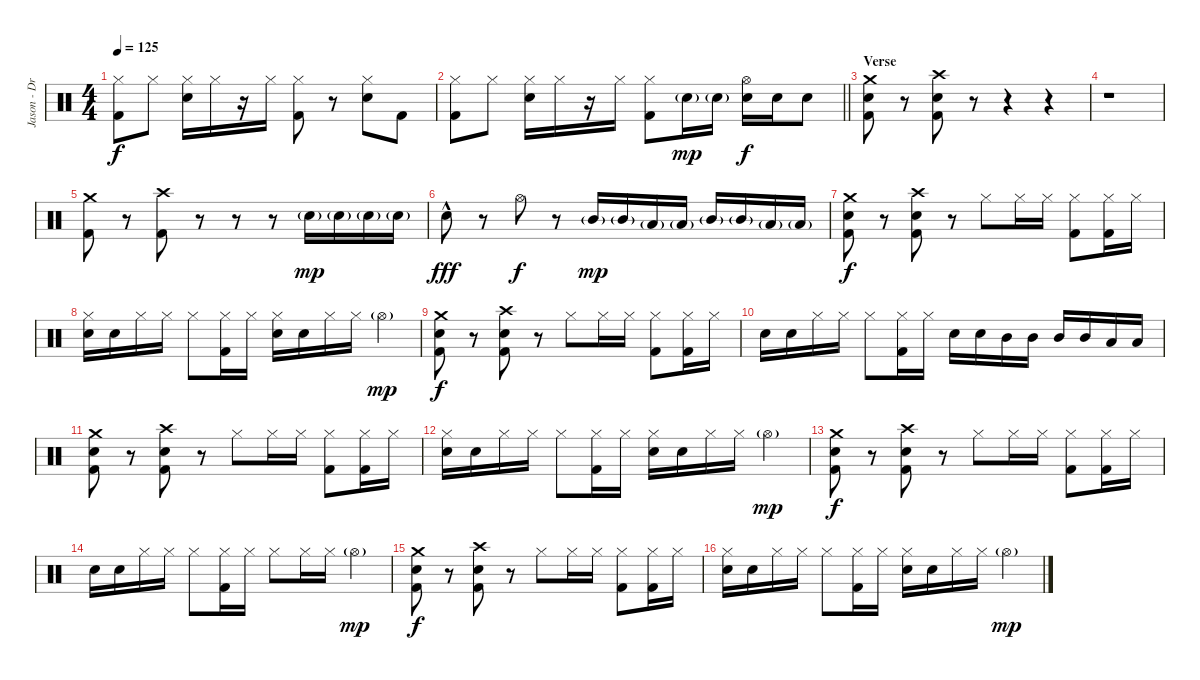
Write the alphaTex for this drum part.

\track ("Jason - Drums" "Jason - Dr") {instrument percussion}
\staff {score}
\articulation defaults
\ts (4 4)
\tempo 125
\clef neutral
\ks c
("Hi-Hat (closed)" "Kick (hit) 2").8{dy f} "Hi-Hat (closed)".8 ("Hi-Hat (closed)" "Electric Snare (hit)").16 "Hi-Hat (closed)".16 r.16 "Hi-Hat (closed)".16 ("Hi-Hat (closed)" "Kick (hit) 2").8 r.8 ("Hi-Hat (closed)" "Electric Snare (hit)").8 "Kick (hit) 2".8 |
\barLineRight lightlight
("Hi-Hat (closed)" "Kick (hit) 2").8 "Hi-Hat (closed)".8 ("Hi-Hat (closed)" "Electric Snare (hit)").16 "Hi-Hat (closed)".16 r.16 "Hi-Hat (closed)".16 ("Hi-Hat (closed)" "Kick (hit) 2").8 "Electric Snare (hit)"{g}.16{dy mp} "Electric Snare (hit)"{g}.16 ("Hi-Hat (open)" "Electric Snare (hit)").16{dy f} "Electric Snare (hit)".16 "Electric Snare (hit)".8 |
\section ("" "Verse")
("Crash medium (hit)" "Electric Snare (hit)" "Kick (hit) 2").8 r.8 ("Crash high (hit)" "Electric Snare (hit)" "Kick (hit) 2").8 r.8 r.4 r.4 |
r.1 |
("Crash medium (hit)" "Kick (hit) 2").8 r.8 ("Crash high (hit)" "Kick (hit) 2").8 r.8 r.8 r.8 "Electric Snare (hit)"{g}.16{dy mp} "Electric Snare (hit)"{g}.16 "Electric Snare (hit)"{g}.16 "Electric Snare (hit)"{g}.16 |
"Electric Snare (hit)"{hac}.8{dy fff} r.8 "Hi-Hat (open)".8{dy f} r.8 "Mid Tom (hit)"{g}.16{dy mp} "Mid Tom (hit)"{g}.16 "Low Tom (hit)"{g}.16 "Low Tom (hit)"{g}.16 "Mid Tom (hit)"{g}.16 "Mid Tom (hit)"{g}.16 "Low Tom (hit)"{g}.16 "Low Tom (hit)"{g}.16 |
("Crash medium (hit)" "Electric Snare (hit)" "Kick (hit) 2").8{dy f} r.8 ("Crash high (hit)" "Electric Snare (hit)" "Kick (hit) 2").8 r.8 "Hi-Hat (closed)".8 "Hi-Hat (closed)".16 "Hi-Hat (closed)".16 ("Hi-Hat (closed)" "Kick (hit) 2").8 ("Hi-Hat (closed)" "Kick (hit) 2").16 "Hi-Hat (closed)".16 |
("Hi-Hat (closed)" "Electric Snare (hit)").16 "Electric Snare (hit)".16 "Hi-Hat (closed)".16 "Hi-Hat (closed)".16 "Hi-Hat (closed)".8 ("Hi-Hat (closed)" "Kick (hit) 2").16 "Hi-Hat (closed)".16 ("Hi-Hat (closed)" "Electric Snare (hit)").16 "Electric Snare (hit)".16 "Hi-Hat (closed)".16 "Hi-Hat (closed)".16 "Hi-Hat (open)"{g}.4{dy mp} |
("Crash medium (hit)" "Electric Snare (hit)" "Kick (hit) 2").8{dy f} r.8 ("Crash high (hit)" "Electric Snare (hit)" "Kick (hit) 2").8 r.8 "Hi-Hat (closed)".8 "Hi-Hat (closed)".16 "Hi-Hat (closed)".16 ("Hi-Hat (closed)" "Kick (hit) 2").8 ("Hi-Hat (closed)" "Kick (hit) 2").16 "Hi-Hat (closed)".16 |
"Electric Snare (hit)".16 "Electric Snare (hit)".16 "Hi-Hat (closed)".16 "Hi-Hat (closed)".16 "Hi-Hat (closed)".8 ("Hi-Hat (closed)" "Kick (hit) 2").16 "Hi-Hat (closed)".16 "Electric Snare (hit)".16 "Electric Snare (hit)".16 "Mid Tom (hit)".16 "Mid Tom (hit)".16 "Mid Tom (hit)".16 "Mid Tom (hit)".16 "Low Tom (hit)".16 "Low Tom (hit)".16 |
("Crash medium (hit)" "Electric Snare (hit)" "Kick (hit) 2").8 r.8 ("Crash high (hit)" "Electric Snare (hit)" "Kick (hit) 2").8 r.8 "Hi-Hat (closed)".8 "Hi-Hat (closed)".16 "Hi-Hat (closed)".16 ("Hi-Hat (closed)" "Kick (hit) 2").8 ("Hi-Hat (closed)" "Kick (hit) 2").16 "Hi-Hat (closed)".16 |
("Hi-Hat (closed)" "Electric Snare (hit)").16 "Electric Snare (hit)".16 "Hi-Hat (closed)".16 "Hi-Hat (closed)".16 "Hi-Hat (closed)".8 ("Hi-Hat (closed)" "Kick (hit) 2").16 "Hi-Hat (closed)".16 ("Hi-Hat (closed)" "Electric Snare (hit)").16 "Electric Snare (hit)".16 "Hi-Hat (closed)".16 "Hi-Hat (closed)".16 "Hi-Hat (open)"{g}.4{dy mp} |
("Crash medium (hit)" "Electric Snare (hit)" "Kick (hit) 2").8{dy f} r.8 ("Crash high (hit)" "Electric Snare (hit)" "Kick (hit) 2").8 r.8 "Hi-Hat (closed)".8 "Hi-Hat (closed)".16 "Hi-Hat (closed)".16 ("Hi-Hat (closed)" "Kick (hit) 2").8 ("Hi-Hat (closed)" "Kick (hit) 2").16 "Hi-Hat (closed)".16 |
"Electric Snare (hit)".16 "Electric Snare (hit)".16 "Hi-Hat (closed)".16 "Hi-Hat (closed)".16 "Hi-Hat (closed)".8 ("Hi-Hat (closed)" "Kick (hit) 2").16 "Hi-Hat (closed)".16 "Hi-Hat (closed)".8 "Hi-Hat (closed)".16 "Hi-Hat (closed)".16 "Hi-Hat (open)"{g}.4{dy mp} |
("Crash medium (hit)" "Electric Snare (hit)" "Kick (hit) 2").8{dy f} r.8 ("Crash high (hit)" "Electric Snare (hit)" "Kick (hit) 2").8 r.8 "Hi-Hat (closed)".8 "Hi-Hat (closed)".16 "Hi-Hat (closed)".16 ("Hi-Hat (closed)" "Kick (hit) 2").8 ("Hi-Hat (closed)" "Kick (hit) 2").16 "Hi-Hat (closed)".16 |
("Hi-Hat (closed)" "Electric Snare (hit)").16 "Electric Snare (hit)".16 "Hi-Hat (closed)".16 "Hi-Hat (closed)".16 "Hi-Hat (closed)".8 ("Hi-Hat (closed)" "Kick (hit) 2").16 "Hi-Hat (closed)".16 ("Hi-Hat (closed)" "Electric Snare (hit)").16 "Electric Snare (hit)".16 "Hi-Hat (closed)".16 "Hi-Hat (closed)".16 "Hi-Hat (open)"{g}.4{dy mp}
